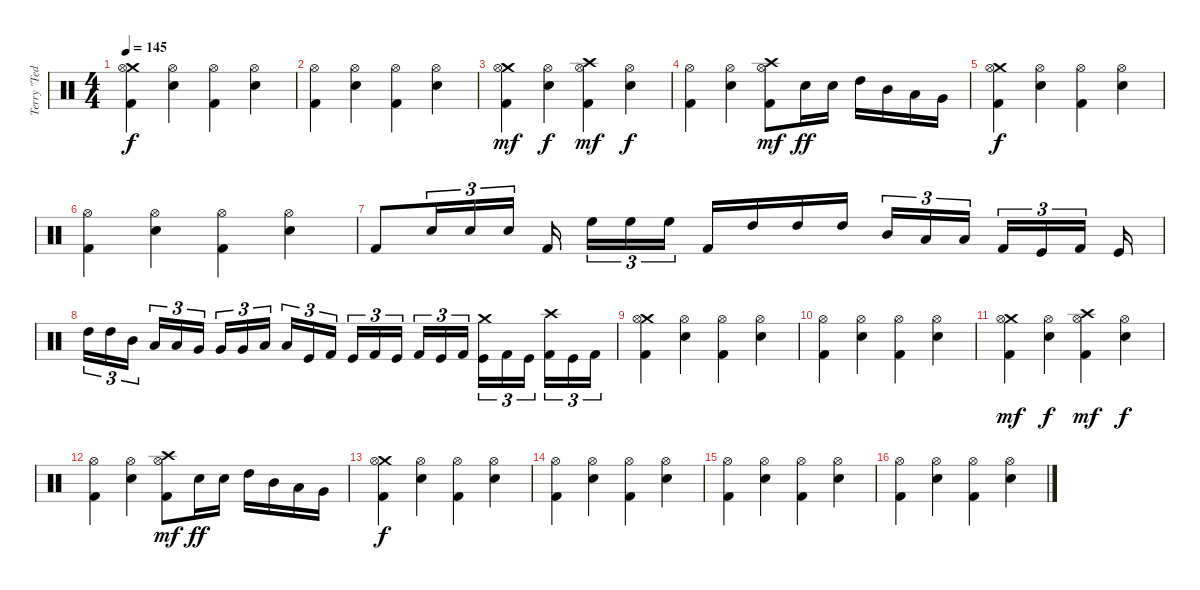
\track ("Terry \"Ted\" Bozzio" "Terry \"Ted") {instrument percussion}
\staff {score}
\articulation defaults
\ts (4 4)
\tempo 145
\clef neutral
\ks c
("Crash medium (hit)" "Hi-Hat (open)" "Kick (hit) 2").4{dy f} ("Hi-Hat (open)" "Electric Snare (hit)").4{beam merge} ("Hi-Hat (open)" "Kick (hit) 2").4 ("Hi-Hat (open)" "Electric Snare (hit)").4 |
("Hi-Hat (open)" "Kick (hit) 2").4{beam merge} ("Hi-Hat (open)" "Electric Snare (hit)").4 ("Hi-Hat (open)" "Kick (hit) 2").4 ("Hi-Hat (open)" "Electric Snare (hit)").4 |
("Crash medium (hit)" "Hi-Hat (open)" "Kick (hit) 2").4{dy mf} ("Hi-Hat (open)" "Electric Snare (hit)").4{dy f beam merge} ("Crash high (hit)" "Hi-Hat (open)" "Kick (hit) 2").4{dy mf} ("Hi-Hat (open)" "Electric Snare (hit)").4{dy f} |
("Hi-Hat (open)" "Kick (hit) 2").4{beam merge} ("Hi-Hat (open)" "Electric Snare (hit)").4 ("Crash high (hit)" "Hi-Hat (open)" "Kick (hit) 2").8{dy mf} "Electric Snare (hit)".16{dy ff} "Electric Snare (hit)".16 "High Tom (hit)".16 "Mid Tom (hit)".16{beam merge} "Low Tom (hit)".16 "Very Low Tom (hit)".16 |
("Crash medium (hit)" "Hi-Hat (open)" "Kick (hit) 2").4{dy f} ("Hi-Hat (open)" "Electric Snare (hit)").4{beam merge} ("Hi-Hat (open)" "Kick (hit) 2").4 ("Hi-Hat (open)" "Electric Snare (hit)").4 |
("Hi-Hat (open)" "Kick (hit) 2").4{beam merge} ("Hi-Hat (open)" "Electric Snare (hit)").4 ("Hi-Hat (open)" "Kick (hit) 2").4 ("Hi-Hat (open)" "Electric Snare (hit)").4 |
"Kick (hit) 2".8{beam merge} "Electric Snare (hit)".16{tu (3 2) beam merge} "Electric Snare (hit)".16{tu (3 2)} "Electric Snare (hit)".16{tu (3 2)} "Kick (hit) 2".16{beam splitsecondary} "High Floor Tom (hit)".16{tu (3 2)} "High Floor Tom (hit)".16{tu (3 2)} "High Floor Tom (hit)".16{tu (3 2) beam splitsecondary} "Kick (hit) 2".16{beam merge} "High Tom (hit)".16 "High Tom (hit)".16 "High Tom (hit)".16{beam splitsecondary} "Mid Tom (hit)".16{tu (3 2)} "Low Tom (hit)".16{tu (3 2) beam merge} "Low Tom (hit)".16{tu (3 2) beam splitsecondary} "Kick (hit) 2".16{tu (3 2)} "Kick (hit)".16{tu (3 2)} "Kick (hit) 2".16{tu (3 2) beam splitsecondary} "Kick (hit)".16 |
"High Tom (hit)".16{tu (3 2)} "High Tom (hit)".16{tu (3 2) beam merge} "Mid Tom (hit)".16{tu (3 2) beam splitsecondary} "Low Tom (hit)".16{tu (3 2) beam merge} "Low Tom (hit)".16{tu (3 2) beam merge} "Very Low Tom (hit)".16{tu (3 2)} "Very Low Tom (hit)".16{tu (3 2)} "Very Low Tom (hit)".16{tu (3 2)} "Low Floor Tom (hit)".16{tu (3 2) beam splitsecondary} "Low Floor Tom (hit)".16{tu (3 2)} "Kick (hit)".16{tu (3 2)} "Kick (hit) 2".16{tu (3 2)} "Kick (hit)".16{tu (3 2)} "Kick (hit) 2".16{tu (3 2)} "Kick (hit)".16{tu (3 2) beam splitsecondary} "Kick (hit) 2".16{tu (3 2)} "Kick (hit)".16{tu (3 2)} "Kick (hit) 2".16{tu (3 2)} ("Crash medium (hit)" "Kick (hit)").16{tu (3 2) beam merge} "Kick (hit) 2".16{tu (3 2) beam merge} "Kick (hit)".16{tu (3 2) beam splitsecondary} ("Crash high (hit)" "Kick (hit) 2").16{tu (3 2)} "Kick (hit)".16{tu (3 2)} "Kick (hit) 2".16{tu (3 2)} |
("Crash medium (hit)" "Hi-Hat (open)" "Kick (hit) 2").4 ("Hi-Hat (open)" "Electric Snare (hit)").4{beam merge} ("Hi-Hat (open)" "Kick (hit) 2").4 ("Hi-Hat (open)" "Electric Snare (hit)").4 |
("Hi-Hat (open)" "Kick (hit) 2").4{beam merge} ("Hi-Hat (open)" "Electric Snare (hit)").4 ("Hi-Hat (open)" "Kick (hit) 2").4 ("Hi-Hat (open)" "Electric Snare (hit)").4 |
("Crash medium (hit)" "Hi-Hat (open)" "Kick (hit) 2").4{dy mf} ("Hi-Hat (open)" "Electric Snare (hit)").4{dy f beam merge} ("Crash high (hit)" "Hi-Hat (open)" "Kick (hit) 2").4{dy mf} ("Hi-Hat (open)" "Electric Snare (hit)").4{dy f} |
("Hi-Hat (open)" "Kick (hit) 2").4{beam merge} ("Hi-Hat (open)" "Electric Snare (hit)").4 ("Crash high (hit)" "Hi-Hat (open)" "Kick (hit) 2").8{dy mf} "Electric Snare (hit)".16{dy ff} "Electric Snare (hit)".16 "High Tom (hit)".16 "Mid Tom (hit)".16{beam merge} "Low Tom (hit)".16 "Very Low Tom (hit)".16 |
("Crash medium (hit)" "Hi-Hat (open)" "Kick (hit) 2").4{dy f} ("Hi-Hat (open)" "Electric Snare (hit)").4{beam merge} ("Hi-Hat (open)" "Kick (hit) 2").4 ("Hi-Hat (open)" "Electric Snare (hit)").4 |
("Hi-Hat (open)" "Kick (hit) 2").4{beam merge} ("Hi-Hat (open)" "Electric Snare (hit)").4 ("Hi-Hat (open)" "Kick (hit) 2").4 ("Hi-Hat (open)" "Electric Snare (hit)").4 |
("Hi-Hat (open)" "Kick (hit) 2").4 ("Hi-Hat (open)" "Electric Snare (hit)").4{beam merge} ("Hi-Hat (open)" "Kick (hit) 2").4 ("Hi-Hat (open)" "Electric Snare (hit)").4 |
("Hi-Hat (open)" "Kick (hit) 2").4{beam merge} ("Hi-Hat (open)" "Electric Snare (hit)").4 ("Hi-Hat (open)" "Kick (hit) 2").4 ("Hi-Hat (open)" "Electric Snare (hit)").4
